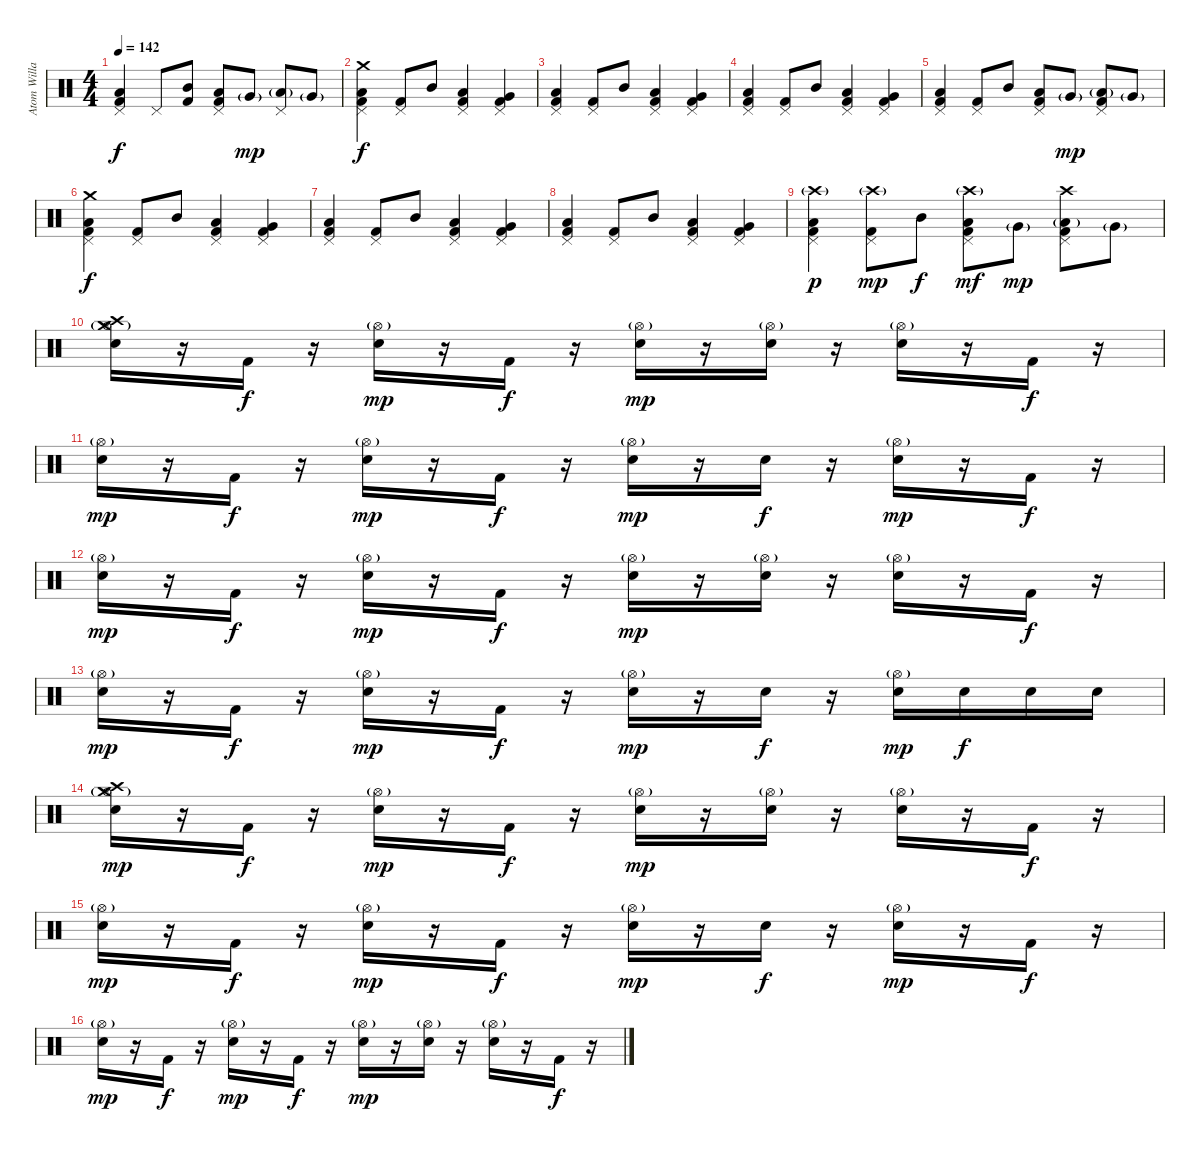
\track ("Atom Willard" "Atom Willa") {instrument percussion}
\staff {score}
\articulation defaults
\ts (4 4)
\tempo 142
\clef neutral
\ks c
("Pedal Hi-Hat (hit)" "Low Tom (hit)" "Kick (hit) 2").4{dy f} "Pedal Hi-Hat (hit)".8 ("Mid Tom (hit)" "Kick (hit) 2").8 ("Pedal Hi-Hat (hit)" "Low Tom (hit)" "Kick (hit) 2").8 "Very Low Tom (hit)"{g}.8{dy mp} ("Pedal Hi-Hat (hit)" "Low Tom (hit)"{g}).8 "Very Low Tom (hit)"{g}.8 |
("Crash medium (hit)" "Pedal Hi-Hat (hit)" "Low Tom (hit)" "Kick (hit) 2").4{dy f} ("Pedal Hi-Hat (hit)" "Kick (hit) 2").8 "Mid Tom (hit)".8 ("Pedal Hi-Hat (hit)" "Low Tom (hit)" "Kick (hit) 2").4 ("Pedal Hi-Hat (hit)" "Very Low Tom (hit)" "Kick (hit) 2").4 |
("Pedal Hi-Hat (hit)" "Low Tom (hit)" "Kick (hit) 2").4 ("Pedal Hi-Hat (hit)" "Kick (hit) 2").8 "Mid Tom (hit)".8 ("Pedal Hi-Hat (hit)" "Low Tom (hit)" "Kick (hit) 2").4 ("Pedal Hi-Hat (hit)" "Very Low Tom (hit)" "Kick (hit) 2").4 |
("Pedal Hi-Hat (hit)" "Low Tom (hit)" "Kick (hit) 2").4 ("Pedal Hi-Hat (hit)" "Kick (hit) 2").8 "Mid Tom (hit)".8 ("Pedal Hi-Hat (hit)" "Low Tom (hit)" "Kick (hit) 2").4 ("Pedal Hi-Hat (hit)" "Very Low Tom (hit)" "Kick (hit) 2").4 |
("Pedal Hi-Hat (hit)" "Low Tom (hit)" "Kick (hit) 2").4 ("Pedal Hi-Hat (hit)" "Kick (hit) 2").8 "Mid Tom (hit)".8 ("Pedal Hi-Hat (hit)" "Low Tom (hit)" "Kick (hit) 2").8 "Very Low Tom (hit)"{g}.8{dy mp} ("Pedal Hi-Hat (hit)" "Low Tom (hit)"{g} "Kick (hit) 2").8 "Very Low Tom (hit)"{g}.8 |
("Crash medium (hit)" "Pedal Hi-Hat (hit)" "Low Tom (hit)" "Kick (hit) 2").4{dy f} ("Pedal Hi-Hat (hit)" "Kick (hit) 2").8 "Mid Tom (hit)".8 ("Pedal Hi-Hat (hit)" "Low Tom (hit)" "Kick (hit) 2").4 ("Pedal Hi-Hat (hit)" "Very Low Tom (hit)" "Kick (hit) 2").4 |
("Pedal Hi-Hat (hit)" "Low Tom (hit)" "Kick (hit) 2").4 ("Pedal Hi-Hat (hit)" "Kick (hit) 2").8 "Mid Tom (hit)".8 ("Pedal Hi-Hat (hit)" "Low Tom (hit)" "Kick (hit) 2").4 ("Pedal Hi-Hat (hit)" "Very Low Tom (hit)" "Kick (hit) 2").4 |
("Pedal Hi-Hat (hit)" "Low Tom (hit)" "Kick (hit) 2").4 ("Pedal Hi-Hat (hit)" "Kick (hit) 2").8 "Mid Tom (hit)".8 ("Pedal Hi-Hat (hit)" "Low Tom (hit)" "Kick (hit) 2").4 ("Pedal Hi-Hat (hit)" "Very Low Tom (hit)" "Kick (hit) 2").4 |
("Crash high (hit)"{g} "Pedal Hi-Hat (hit)" "Low Tom (hit)" "Kick (hit) 2").4{dy p} ("Crash high (hit)"{g} "Pedal Hi-Hat (hit)" "Kick (hit) 2").8{dy mp} "Mid Tom (hit)".8{dy f} ("Crash high (hit)"{g} "Pedal Hi-Hat (hit)" "Low Tom (hit)" "Kick (hit) 2").8{dy mf} "Very Low Tom (hit)"{g}.8{dy mp} ("Crash high (hit)" "Pedal Hi-Hat (hit)" "Low Tom (hit)"{g} "Kick (hit) 2").8 "Very Low Tom (hit)"{g}.8 |
("Crash high (hit)" "Crash medium (hit)" "Hi-Hat (open)"{g} "Electric Snare (hit)").16 r.16 "Kick (hit) 2".16{dy f} r.16 ("Hi-Hat (open)"{g} "Electric Snare (hit)").16{dy mp} r.16 "Kick (hit) 2".16{dy f} r.16 ("Hi-Hat (open)"{g} "Electric Snare (hit)").16{dy mp} r.16 ("Hi-Hat (open)"{g} "Electric Snare (hit)").16 r.16 ("Hi-Hat (open)"{g} "Electric Snare (hit)").16 r.16 "Kick (hit) 2".16{dy f} r.16 |
("Hi-Hat (open)"{g} "Electric Snare (hit)").16{dy mp} r.16 "Kick (hit) 2".16{dy f} r.16 ("Hi-Hat (open)"{g} "Electric Snare (hit)").16{dy mp} r.16 "Kick (hit) 2".16{dy f} r.16 ("Hi-Hat (open)"{g} "Electric Snare (hit)").16{dy mp} r.16 "Electric Snare (hit)".16{dy f} r.16 ("Hi-Hat (open)"{g} "Electric Snare (hit)").16{dy mp} r.16 "Kick (hit) 2".16{dy f} r.16 |
("Hi-Hat (open)"{g} "Electric Snare (hit)").16{dy mp} r.16 "Kick (hit) 2".16{dy f} r.16 ("Hi-Hat (open)"{g} "Electric Snare (hit)").16{dy mp} r.16 "Kick (hit) 2".16{dy f} r.16 ("Hi-Hat (open)"{g} "Electric Snare (hit)").16{dy mp} r.16 ("Hi-Hat (open)"{g} "Electric Snare (hit)").16 r.16 ("Hi-Hat (open)"{g} "Electric Snare (hit)").16 r.16 "Kick (hit) 2".16{dy f} r.16 |
("Hi-Hat (open)"{g} "Electric Snare (hit)").16{dy mp} r.16 "Kick (hit) 2".16{dy f} r.16 ("Hi-Hat (open)"{g} "Electric Snare (hit)").16{dy mp} r.16 "Kick (hit) 2".16{dy f} r.16 ("Hi-Hat (open)"{g} "Electric Snare (hit)").16{dy mp} r.16 "Electric Snare (hit)".16{dy f} r.16 ("Hi-Hat (open)"{g} "Electric Snare (hit)").16{dy mp} "Electric Snare (hit)".16{dy f} "Electric Snare (hit)".16 "Electric Snare (hit)".16 |
("Crash high (hit)" "Crash medium (hit)" "Hi-Hat (open)"{g} "Electric Snare (hit)").16{dy mp} r.16 "Kick (hit) 2".16{dy f} r.16 ("Hi-Hat (open)"{g} "Electric Snare (hit)").16{dy mp} r.16 "Kick (hit) 2".16{dy f} r.16 ("Hi-Hat (open)"{g} "Electric Snare (hit)").16{dy mp} r.16 ("Hi-Hat (open)"{g} "Electric Snare (hit)").16 r.16 ("Hi-Hat (open)"{g} "Electric Snare (hit)").16 r.16 "Kick (hit) 2".16{dy f} r.16 |
("Hi-Hat (open)"{g} "Electric Snare (hit)").16{dy mp} r.16 "Kick (hit) 2".16{dy f} r.16 ("Hi-Hat (open)"{g} "Electric Snare (hit)").16{dy mp} r.16 "Kick (hit) 2".16{dy f} r.16 ("Hi-Hat (open)"{g} "Electric Snare (hit)").16{dy mp} r.16 "Electric Snare (hit)".16{dy f} r.16 ("Hi-Hat (open)"{g} "Electric Snare (hit)").16{dy mp} r.16 "Kick (hit) 2".16{dy f} r.16 |
("Hi-Hat (open)"{g} "Electric Snare (hit)").16{dy mp} r.16 "Kick (hit) 2".16{dy f} r.16 ("Hi-Hat (open)"{g} "Electric Snare (hit)").16{dy mp} r.16 "Kick (hit) 2".16{dy f} r.16 ("Hi-Hat (open)"{g} "Electric Snare (hit)").16{dy mp} r.16 ("Hi-Hat (open)"{g} "Electric Snare (hit)").16 r.16 ("Hi-Hat (open)"{g} "Electric Snare (hit)").16 r.16 "Kick (hit) 2".16{dy f} r.16
